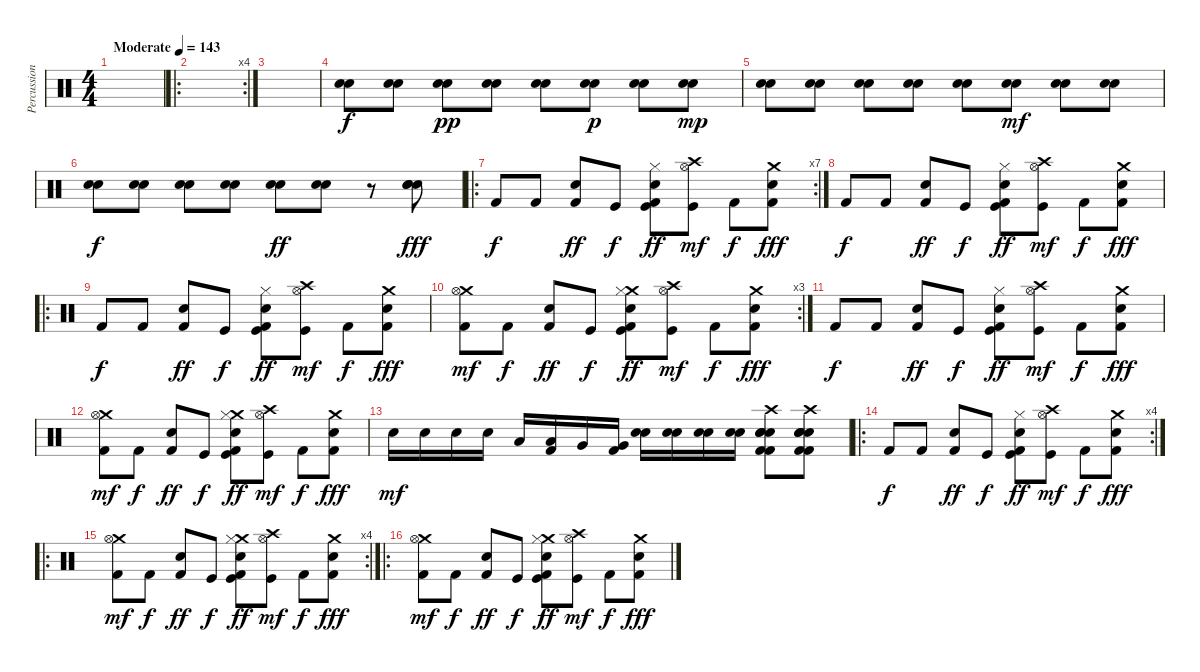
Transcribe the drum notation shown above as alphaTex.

\track ("Percussion" "Percussion") {instrument percussion}
\staff {score}
\articulation defaults
\ts (4 4)
\tempo (143 "Moderate")
\clef neutral
\ks c
|
\ro
\rc 4
|
|
("Electric Snare (hit)" "Electric Snare (hit)").8 ("Electric Snare (hit)" "Electric Snare (hit)").8 ("Electric Snare (hit)" "Electric Snare (hit)").8{dy pp} ("Electric Snare (hit)" "Electric Snare (hit)").8 ("Electric Snare (hit)" "Electric Snare (hit)").8 ("Electric Snare (hit)" "Electric Snare (hit)").8{dy p} ("Electric Snare (hit)" "Electric Snare (hit)").8 ("Electric Snare (hit)" "Electric Snare (hit)").8{dy mp} |
("Electric Snare (hit)" "Electric Snare (hit)").8 ("Electric Snare (hit)" "Electric Snare (hit)").8 ("Electric Snare (hit)" "Electric Snare (hit)").8 ("Electric Snare (hit)" "Electric Snare (hit)").8 ("Electric Snare (hit)" "Electric Snare (hit)").8 ("Electric Snare (hit)" "Electric Snare (hit)").8{dy mf} ("Electric Snare (hit)" "Electric Snare (hit)").8 ("Electric Snare (hit)" "Electric Snare (hit)").8 |
("Electric Snare (hit)" "Electric Snare (hit)").8{dy f} ("Electric Snare (hit)" "Electric Snare (hit)").8 ("Electric Snare (hit)" "Electric Snare (hit)").8 ("Electric Snare (hit)" "Electric Snare (hit)").8 ("Electric Snare (hit)" "Electric Snare (hit)").8{dy ff} ("Electric Snare (hit)" "Electric Snare (hit)").8 r.8 ("Electric Snare (hit)" "Electric Snare (hit)" "Snare (hit)").8{dy fff} |
\ro
\rc 7 "Kick (hit) 2".8{dy f} "Kick (hit) 2".8
("Electric Snare (hit)" "Kick (hit) 2").8{dy ff} "Kick (hit)".8{dy f} ("Snare (hit) 2" "Kick (hit)" "Kick (hit) 2" "Hi-Hat (closed)").8{dy ff} ("Hi-Hat (open)" "Kick (hit)" "Crash high (hit)").8{dy mf} "Kick (hit) 2".8{dy f} ("Crash medium (hit)" "Electric Snare (hit)" "Kick (hit) 2").8{dy fff} |
"Kick (hit) 2".8{dy f} "Kick (hit) 2".8 ("Electric Snare (hit)" "Kick (hit) 2").8{dy ff} "Kick (hit)".8{dy f} ("Snare (hit) 2" "Kick (hit)" "Kick (hit) 2" "Hi-Hat (closed)").8{dy ff} ("Hi-Hat (open)" "Kick (hit)" "Crash high (hit)").8{dy mf} "Kick (hit) 2".8{dy f} ("Crash medium (hit)" "Electric Snare (hit)" "Kick (hit) 2").8{dy fff} |
\ro "Kick (hit) 2".8{dy f} "Kick (hit) 2".8
("Electric Snare (hit)" "Kick (hit) 2").8{dy ff} "Kick (hit)".8{dy f} ("Snare (hit) 2" "Kick (hit)" "Kick (hit) 2" "Hi-Hat (closed)").8{dy ff} ("Hi-Hat (open)" "Kick (hit)" "Crash high (hit)").8{dy mf} "Kick (hit) 2".8{dy f} ("Crash medium (hit)" "Electric Snare (hit)" "Kick (hit) 2").8{dy fff} |
\rc 3
("Crash medium (hit)" "Kick (hit) 2" "Hi-Hat (open)").8{dy mf} "Kick (hit) 2".8{dy f} ("Electric Snare (hit)" "Kick (hit) 2").8{dy ff} "Kick (hit)".8{dy f} ("Crash medium (hit)" "Snare (hit) 2" "Kick (hit)" "Kick (hit) 2" "Hi-Hat (closed)").8{dy ff} ("Hi-Hat (open)" "Kick (hit)" "Crash high (hit)").8{dy mf} "Kick (hit) 2".8{dy f} ("Crash medium (hit)" "Electric Snare (hit)" "Kick (hit) 2").8{dy fff} |
"Kick (hit) 2".8{dy f} "Kick (hit) 2".8 ("Electric Snare (hit)" "Kick (hit) 2").8{dy ff} "Kick (hit)".8{dy f} ("Snare (hit) 2" "Kick (hit)" "Kick (hit) 2" "Hi-Hat (closed)").8{dy ff} ("Hi-Hat (open)" "Kick (hit)" "Crash high (hit)").8{dy mf} "Kick (hit) 2".8{dy f} ("Crash medium (hit)" "Electric Snare (hit)" "Kick (hit) 2").8{dy fff} |
("Crash medium (hit)" "Kick (hit) 2" "Hi-Hat (open)").8{dy mf} "Kick (hit) 2".8{dy f} ("Electric Snare (hit)" "Kick (hit) 2").8{dy ff} "Kick (hit)".8{dy f} ("Crash medium (hit)" "Snare (hit) 2" "Kick (hit)" "Kick (hit) 2" "Hi-Hat (closed)").8{dy ff} ("Hi-Hat (open)" "Kick (hit)" "Crash high (hit)").8{dy mf} "Kick (hit) 2".8{dy f} ("Crash medium (hit)" "Electric Snare (hit)" "Kick (hit) 2").8{dy fff} |
"Electric Snare (hit)".16{dy mf} "Electric Snare (hit)".16 "Electric Snare (hit)".16 "Electric Snare (hit)".16 "Low Floor Tom (hit)".16 ("Kick (hit) 2" "Low Floor Tom (hit)").16 "Very Low Tom (hit)".16 ("Kick (hit) 2" "Very Low Tom (hit)").16 ("Snare (hit) 2" "Electric Snare (hit)").16 ("Snare (hit) 2" "Electric Snare (hit)").16 ("Snare (hit) 2" "Electric Snare (hit)").16 ("Snare (hit) 2" "Electric Snare (hit)").16 ("Electric Snare (hit)" "Electric Snare (hit)" "Kick (hit) 2" "Kick (hit) 2" "Snare (hit) 2" "Crash high (hit)").8 ("Electric Snare (hit)" "Electric Snare (hit)" "Kick (hit) 2" "Kick (hit) 2" "Snare (hit) 2" "Crash high (hit)").8 |
\ro
\rc 4 "Kick (hit) 2".8{dy f} "Kick (hit) 2".8
("Electric Snare (hit)" "Kick (hit) 2").8{dy ff} "Kick (hit)".8{dy f} ("Snare (hit) 2" "Kick (hit)" "Kick (hit) 2" "Hi-Hat (closed)").8{dy ff} ("Hi-Hat (open)" "Kick (hit)" "Crash high (hit)").8{dy mf} "Kick (hit) 2".8{dy f} ("Crash medium (hit)" "Electric Snare (hit)" "Kick (hit) 2").8{dy fff} |
\ro
\rc 4
("Crash medium (hit)" "Kick (hit) 2" "Hi-Hat (open)").8{dy mf} "Kick (hit) 2".8{dy f} ("Electric Snare (hit)" "Kick (hit) 2").8{dy ff} "Kick (hit)".8{dy f} ("Crash medium (hit)" "Snare (hit) 2" "Kick (hit)" "Kick (hit) 2" "Hi-Hat (closed)").8{dy ff} ("Hi-Hat (open)" "Kick (hit)" "Crash high (hit)").8{dy mf} "Kick (hit) 2".8{dy f} ("Crash medium (hit)" "Electric Snare (hit)" "Kick (hit) 2").8{dy fff} |
\ro
("Crash medium (hit)" "Kick (hit) 2" "Hi-Hat (open)").8{dy mf} "Kick (hit) 2".8{dy f} ("Electric Snare (hit)" "Kick (hit) 2").8{dy ff} "Kick (hit)".8{dy f} ("Crash medium (hit)" "Snare (hit) 2" "Kick (hit)" "Kick (hit) 2" "Hi-Hat (closed)").8{dy ff} ("Hi-Hat (open)" "Kick (hit)" "Crash high (hit)").8{dy mf} "Kick (hit) 2".8{dy f} ("Crash medium (hit)" "Electric Snare (hit)" "Kick (hit) 2").8{dy fff}
